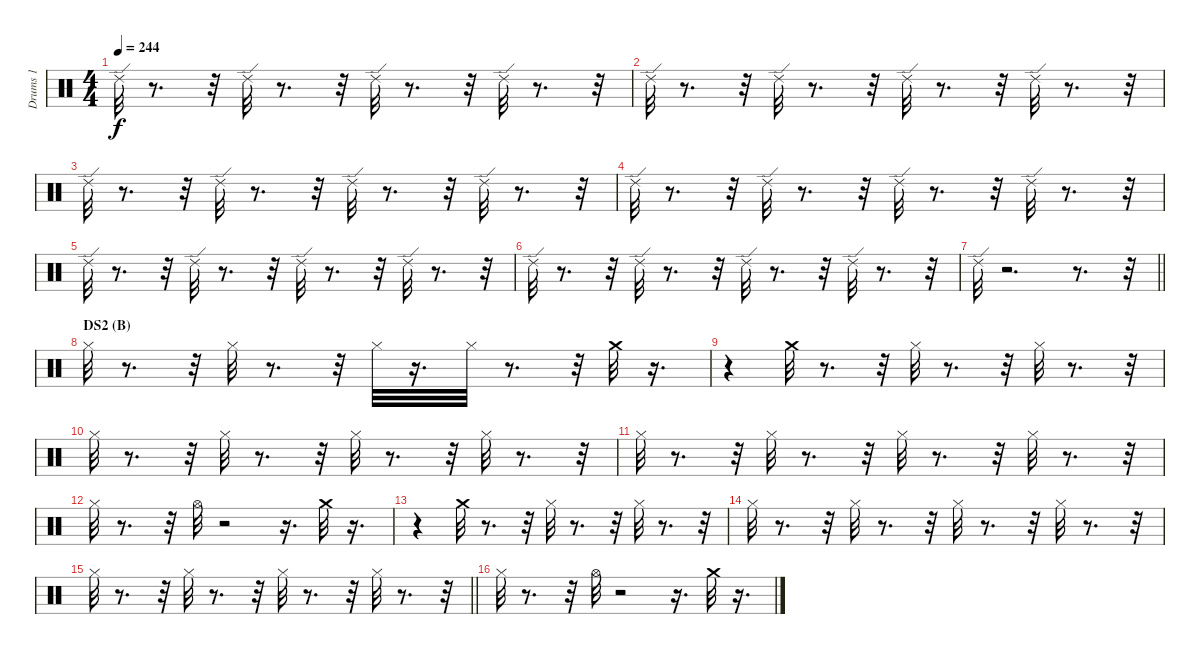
\track ("Drums 1" "Drums 1") {instrument percussion}
\staff {score}
\articulation defaults
\ts (4 4)
\tempo 244
\clef neutral
\ks c "Ride (edge) 2".32{dy f}
r.8{d} r.32 "Ride (edge) 2".32 r.8{d} r.32 "Ride (edge) 2".32 r.8{d} r.32 "Ride (edge) 2".32 r.8{d} r.32 |
"Ride (edge) 2".32 r.8{d} r.32 "Ride (edge) 2".32 r.8{d} r.32 "Ride (edge) 2".32 r.8{d} r.32 "Ride (edge) 2".32 r.8{d} r.32 |
"Ride (edge) 2".32 r.8{d} r.32 "Ride (edge) 2".32 r.8{d} r.32 "Ride (edge) 2".32 r.8{d} r.32 "Ride (edge) 2".32 r.8{d} r.32 |
"Ride (edge) 2".32 r.8{d} r.32 "Ride (edge) 2".32 r.8{d} r.32 "Ride (edge) 2".32 r.8{d} r.32 "Ride (edge) 2".32 r.8{d} r.32 |
"Ride (edge) 2".32 r.8{d} r.32 "Ride (edge) 2".32 r.8{d} r.32 "Ride (edge) 2".32 r.8{d} r.32 "Ride (edge) 2".32 r.8{d} r.32 |
"Ride (edge) 2".32 r.8{d} r.32 "Ride (edge) 2".32 r.8{d} r.32 "Ride (edge) 2".32 r.8{d} r.32 "Ride (edge) 2".32 r.8{d} r.32 |
\barLineRight lightlight "Ride (edge) 2".32
r.2{d} r.8{d} r.32 |
\section ("" "DS2 (B)")
"Hi-Hat (closed)".32 r.8{d} r.32 "Hi-Hat (closed)".32 r.8{d} r.32 "Hi-Hat (closed)".32 r.16{d} "Hi-Hat (closed)".32 r.8{d} r.32 "Crash medium (hit)".32 r.16{d} |
r.4 "Crash medium (hit)".32 r.8{d} r.32 "Hi-Hat (closed)".32 r.8{d} r.32 "Hi-Hat (closed)".32 r.8{d} r.32 |
"Hi-Hat (closed)".32 r.8{d} r.32 "Hi-Hat (closed)".32 r.8{d} r.32 "Hi-Hat (closed)".32 r.8{d} r.32 "Hi-Hat (closed)".32 r.8{d} r.32 |
"Hi-Hat (closed)".32 r.8{d} r.32 "Hi-Hat (closed)".32 r.8{d} r.32 "Hi-Hat (closed)".32 r.8{d} r.32 "Hi-Hat (closed)".32 r.8{d} r.32 |
"Hi-Hat (closed)".32 r.8{d} r.32 "Hi-Hat (open)".32 r.2 r.16{d} "Crash medium (hit)".32 r.16{d} |
r.4 "Crash medium (hit)".32 r.8{d} r.32 "Hi-Hat (closed)".32 r.8{d} r.32 "Hi-Hat (closed)".32 r.8{d} r.32 |
"Hi-Hat (closed)".32 r.8{d} r.32 "Hi-Hat (closed)".32 r.8{d} r.32 "Hi-Hat (closed)".32 r.8{d} r.32 "Hi-Hat (closed)".32 r.8{d} r.32 |
\barLineRight lightlight "Hi-Hat (closed)".32
r.8{d} r.32 "Hi-Hat (closed)".32 r.8{d} r.32 "Hi-Hat (closed)".32 r.8{d} r.32 "Hi-Hat (closed)".32 r.8{d} r.32 |
"Hi-Hat (closed)".32 r.8{d} r.32 "Hi-Hat (open)".32 r.2 r.16{d} "Crash medium (hit)".32 r.16{d}
